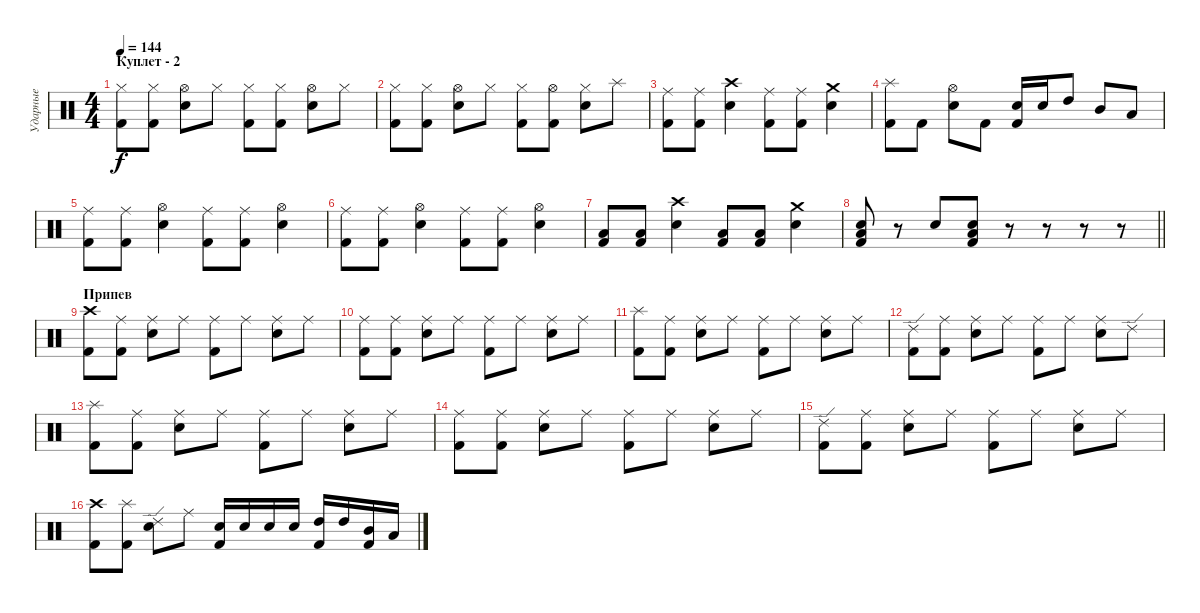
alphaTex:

\track ("Ударные" "Ударные") {instrument percussion}
\staff {score}
\articulation defaults
\ts (4 4)
\section ("" "Куплет - 2")
\tempo 144
\clef neutral
\ks c
("Hi-Hat (closed)" "Kick (hit) 2").8{dy f} ("Hi-Hat (closed)" "Kick (hit) 2").8 ("Hi-Hat (open)" "Snare (hit) 2").8 "Hi-Hat (closed)".8 ("Hi-Hat (closed)" "Kick (hit) 2").8 ("Hi-Hat (closed)" "Kick (hit) 2").8 ("Hi-Hat (open)" "Snare (hit) 2").8 "Hi-Hat (closed)".8 |
("Hi-Hat (closed)" "Kick (hit) 2").8 ("Hi-Hat (closed)" "Kick (hit) 2").8 ("Hi-Hat (open)" "Snare (hit) 2").8 "Hi-Hat (closed)".8 ("Hi-Hat (closed)" "Kick (hit) 2").8 ("Hi-Hat (open)" "Kick (hit) 2").8 ("Hi-Hat (closed)" "Snare (hit) 2").8 "Splash (hit)".8 |
("Ride (middle)" "Kick (hit) 2").8 ("Ride (middle)" "Kick (hit) 2").8 ("Crash high (hit)" "Snare (hit) 2").4 ("Ride (middle)" "Kick (hit) 2").8 ("Ride (middle)" "Kick (hit) 2").8 ("Crash medium (hit)" "Snare (hit) 2").4 |
("Splash (hit)" "Kick (hit) 2").8 "Kick (hit) 2".8 ("Hi-Hat (open)" "Snare (hit) 2").8 "Kick (hit) 2".8 ("Snare (hit) 2" "Kick (hit) 2").16 "Snare (hit) 2".16 "High Tom (hit)".8 "Mid Tom (hit)".8 "Low Tom (hit)".8 |
("Ride (middle)" "Kick (hit) 2").8 ("Ride (middle)" "Kick (hit) 2").8 ("Hi-Hat (open)" "Snare (hit) 2").4 ("Ride (middle)" "Kick (hit) 2").8 ("Ride (middle)" "Kick (hit) 2").8 ("Hi-Hat (open)" "Snare (hit) 2").4 |
("Ride (middle)" "Kick (hit) 2").8 ("Ride (middle)" "Kick (hit) 2").8 ("Hi-Hat (open)" "Snare (hit) 2").4 ("Ride (middle)" "Kick (hit) 2").8 ("Ride (middle)" "Kick (hit) 2").8 ("Hi-Hat (open)" "Snare (hit) 2").4 |
("Low Floor Tom (hit)" "Kick (hit) 2").8 ("Low Floor Tom (hit)" "Kick (hit) 2").8 ("Crash high (hit)" "Snare (hit) 2").4 ("Low Floor Tom (hit)" "Kick (hit) 2").8 ("Low Floor Tom (hit)" "Kick (hit) 2").8 ("Crash medium (hit)" "Snare (hit) 2").4 |
\barLineRight lightlight
("Low Floor Tom (hit)" "Snare (hit) 2" "Kick (hit) 2").8 r.8 "Snare (hit) 2".8 ("Low Tom (hit)" "Snare (hit) 2" "Kick (hit) 2").8 r.8 r.8 r.8 r.8 |
\section ("" "Припев")
("Crash high (hit)" "Kick (hit) 2").8 ("Ride (middle)" "Kick (hit) 2").8 ("Ride (middle)" "Snare (hit) 2").8 "Ride (middle)".8 ("Ride (middle)" "Kick (hit) 2").8 "Ride (middle)".8 ("Ride (middle)" "Snare (hit) 2").8 "Ride (middle)".8 |
("Ride (middle)" "Kick (hit) 2").8 ("Ride (middle)" "Kick (hit) 2").8 ("Ride (middle)" "Snare (hit) 2").8 "Ride (middle)".8 ("Ride (middle)" "Kick (hit) 2").8 "Ride (middle)".8 ("Ride (middle)" "Snare (hit) 2").8 "Ride (middle)".8 |
("Splash (hit)" "Kick (hit) 2").8 ("Ride (middle)" "Kick (hit) 2").8 ("Ride (middle)" "Snare (hit) 2").8 "Ride (middle)".8 ("Ride (middle)" "Kick (hit) 2").8 "Ride (middle)".8 ("Ride (middle)" "Snare (hit) 2").8 "Ride (middle)".8 |
("Ride (edge) 2" "Kick (hit) 2").8 ("Ride (middle)" "Kick (hit) 2").8 ("Ride (middle)" "Snare (hit) 2").8 "Ride (middle)".8 ("Ride (middle)" "Kick (hit) 2").8 "Ride (middle)".8 ("Ride (middle)" "Snare (hit) 2").8 "Ride (edge) 2".8 |
("Splash (hit)" "Kick (hit) 2").8 ("Ride (middle)" "Kick (hit) 2").8 ("Ride (middle)" "Snare (hit) 2").8 "Ride (middle)".8 ("Ride (middle)" "Kick (hit) 2").8 "Ride (middle)".8 ("Ride (middle)" "Snare (hit) 2").8 "Ride (middle)".8 |
("Ride (middle)" "Kick (hit) 2").8 ("Ride (middle)" "Kick (hit) 2").8 ("Ride (middle)" "Snare (hit) 2").8 "Ride (middle)".8 ("Ride (middle)" "Kick (hit) 2").8 "Ride (middle)".8 ("Ride (middle)" "Snare (hit) 2").8 "Ride (middle)".8 |
("Ride (edge) 2" "Kick (hit) 2").8 ("Ride (middle)" "Kick (hit) 2").8 ("Ride (middle)" "Snare (hit) 2").8 "Ride (middle)".8 ("Ride (middle)" "Kick (hit) 2").8 "Ride (middle)".8 ("Ride (middle)" "Snare (hit) 2").8 "Ride (middle)".8 |
("Crash high (hit)" "Kick (hit) 2").8 ("Splash (hit)" "Kick (hit) 2").8 ("Ride (edge) 2" "Snare (hit) 2").8 "Ride (middle)".8 ("Snare (hit) 2" "Kick (hit) 2").16 "Snare (hit) 2".16 "Snare (hit) 2".16 "Snare (hit) 2".16 ("High Tom (hit)" "Kick (hit) 2").16 "High Tom (hit)".16 ("Mid Tom (hit)" "Kick (hit) 2").16 "Low Tom (hit)".16
